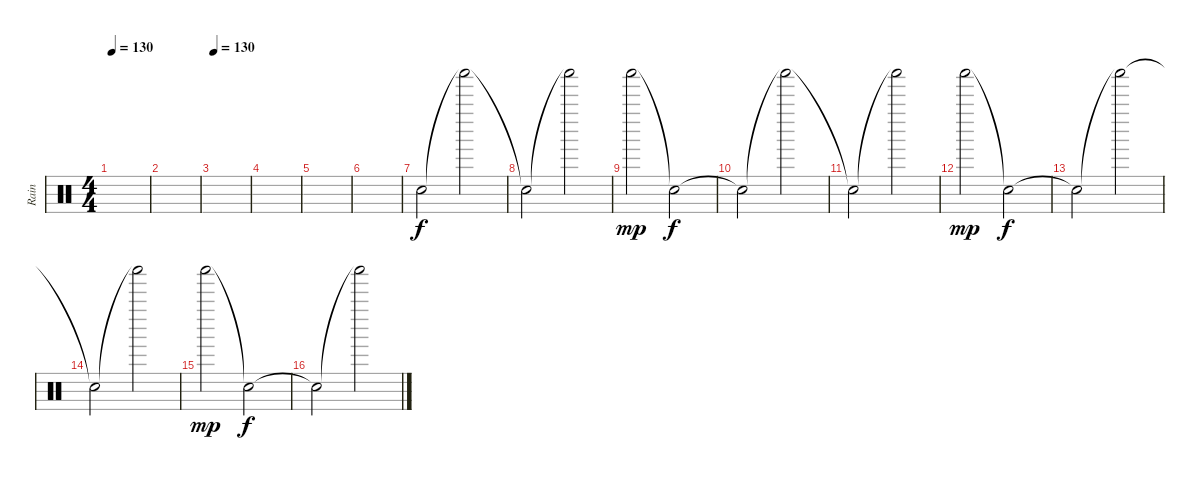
\track ("Rain" "Rain") {instrument percussion}
\staff {score}
\articulation defaults
\ts (4 4)
\tempo 130
\clef neutral
\ks c
|
|
\tempo 130
|
|
|
|
"Snare (hit)".2 "Shaker (hit)"{t}.2 |
"Snare (hit)"{t}.2 "Shaker (hit)"{t}.2 |
"Shaker (hit)".2{dy mp} "Snare (hit)"{t}.2{dy f} |
"Snare (hit)"{t}.2 "Shaker (hit)"{t}.2 |
"Snare (hit)"{t}.2 "Shaker (hit)"{t}.2 |
"Shaker (hit)".2{dy mp} "Snare (hit)"{t}.2{dy f} |
"Snare (hit)"{t}.2 "Shaker (hit)"{t}.2 |
"Snare (hit)"{t}.2 "Shaker (hit)"{t}.2 |
"Shaker (hit)".2{dy mp} "Snare (hit)"{t}.2{dy f} |
"Snare (hit)"{t}.2 "Shaker (hit)"{t}.2
